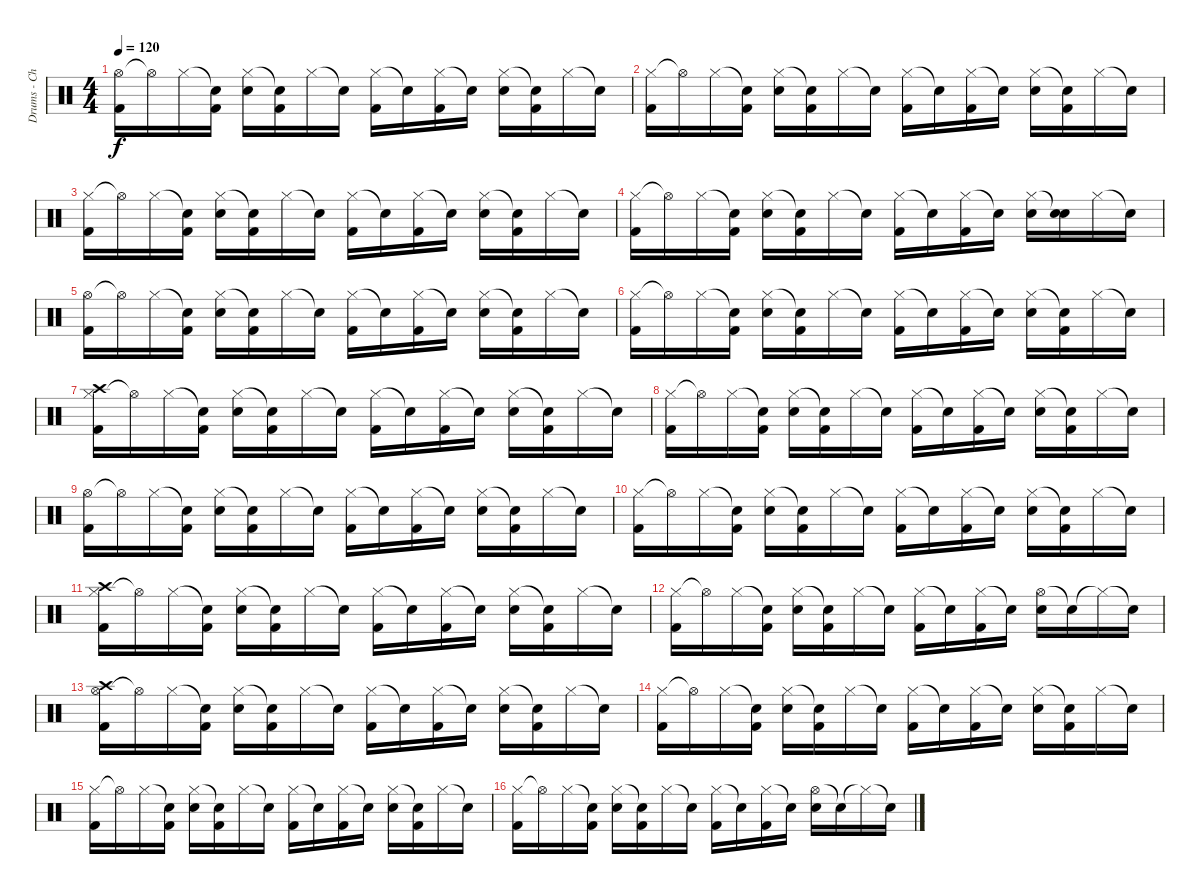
\track ("Drums - Chad" "Drums - Ch") {instrument percussion}
\staff {score}
\articulation defaults
\ts (4 4)
\tempo 120
\clef neutral
\ks c
("Hi-Hat (open)" "Kick (hit) 2").16{dy f} "Hi-Hat (open)"{t}.16 "Hi-Hat (closed)".16 ("Snare (hit)"{t} "Kick (hit) 2").16 ("Hi-Hat (closed)" "Electric Snare (hit)").16 ("Snare (hit)"{t} "Kick (hit) 2").16 "Hi-Hat (closed)".16 "Snare (hit)"{t}.16 ("Hi-Hat (closed)" "Kick (hit) 2").16 "Snare (hit)"{t}.16 ("Hi-Hat (closed)" "Kick (hit) 2").16 "Snare (hit)"{t}.16 ("Hi-Hat (closed)" "Electric Snare (hit)").16 ("Snare (hit)"{t} "Kick (hit) 2").16 "Hi-Hat (closed)".16 "Snare (hit)"{t}.16 |
("Hi-Hat (closed)" "Kick (hit) 2").16 "Hi-Hat (open)"{t}.16 "Hi-Hat (closed)".16 ("Snare (hit)"{t} "Kick (hit) 2").16 ("Hi-Hat (closed)" "Electric Snare (hit)").16 ("Snare (hit)"{t} "Kick (hit) 2").16 "Hi-Hat (closed)".16 "Snare (hit)"{t}.16 ("Hi-Hat (closed)" "Kick (hit) 2").16 "Snare (hit)"{t}.16 ("Hi-Hat (closed)" "Kick (hit) 2").16 "Snare (hit)"{t}.16 ("Hi-Hat (closed)" "Electric Snare (hit)").16 ("Snare (hit)"{t} "Kick (hit) 2").16 "Hi-Hat (closed)".16 "Snare (hit)"{t}.16 |
("Hi-Hat (closed)" "Kick (hit) 2").16 "Hi-Hat (open)"{t}.16 "Hi-Hat (closed)".16 ("Snare (hit)"{t} "Kick (hit) 2").16 ("Hi-Hat (closed)" "Electric Snare (hit)").16 ("Snare (hit)"{t} "Kick (hit) 2").16 "Hi-Hat (closed)".16 "Snare (hit)"{t}.16 ("Hi-Hat (closed)" "Kick (hit) 2").16 "Snare (hit)"{t}.16 ("Hi-Hat (closed)" "Kick (hit) 2").16 "Snare (hit)"{t}.16 ("Hi-Hat (closed)" "Electric Snare (hit)").16 ("Snare (hit)"{t} "Kick (hit) 2").16 "Hi-Hat (closed)".16 "Snare (hit)"{t}.16 |
("Hi-Hat (closed)" "Kick (hit) 2").16 "Hi-Hat (open)"{t}.16 "Hi-Hat (closed)".16 ("Snare (hit)"{t} "Kick (hit) 2").16 ("Hi-Hat (closed)" "Electric Snare (hit)").16 ("Snare (hit)"{t} "Kick (hit) 2").16 "Hi-Hat (closed)".16 "Snare (hit)"{t}.16 ("Hi-Hat (closed)" "Kick (hit) 2").16 "Snare (hit)"{t}.16 ("Hi-Hat (closed)" "Kick (hit) 2").16 "Snare (hit)"{t}.16 ("Hi-Hat (closed)" "Electric Snare (hit)").16 ("Snare (hit)"{t} "Electric Snare (hit)").16 "Hi-Hat (closed)".16 "Snare (hit)"{t}.16 |
("Hi-Hat (open)" "Kick (hit) 2").16 "Hi-Hat (open)"{t}.16 "Hi-Hat (closed)".16 ("Snare (hit)"{t} "Kick (hit) 2").16 ("Hi-Hat (closed)" "Electric Snare (hit)").16 ("Snare (hit)"{t} "Kick (hit) 2").16 "Hi-Hat (closed)".16 "Snare (hit)"{t}.16 ("Hi-Hat (closed)" "Kick (hit) 2").16 "Snare (hit)"{t}.16 ("Hi-Hat (closed)" "Kick (hit) 2").16 "Snare (hit)"{t}.16 ("Hi-Hat (closed)" "Electric Snare (hit)").16 ("Snare (hit)"{t} "Kick (hit) 2").16 "Hi-Hat (closed)".16 "Snare (hit)"{t}.16 |
("Hi-Hat (closed)" "Kick (hit) 2").16 "Hi-Hat (open)"{t}.16 "Hi-Hat (closed)".16 ("Snare (hit)"{t} "Kick (hit) 2").16 ("Hi-Hat (closed)" "Electric Snare (hit)").16 ("Snare (hit)"{t} "Kick (hit) 2").16 "Hi-Hat (closed)".16 "Snare (hit)"{t}.16 ("Hi-Hat (closed)" "Kick (hit) 2").16 "Snare (hit)"{t}.16 ("Hi-Hat (closed)" "Kick (hit) 2").16 "Snare (hit)"{t}.16 ("Hi-Hat (closed)" "Electric Snare (hit)").16 ("Snare (hit)"{t} "Kick (hit) 2").16 "Hi-Hat (closed)".16 "Snare (hit)"{t}.16 |
("Hi-Hat (closed)" "Kick (hit) 2" "Crash high (hit)").16 "Hi-Hat (open)"{t}.16 "Hi-Hat (closed)".16 ("Snare (hit)"{t} "Kick (hit) 2").16 ("Hi-Hat (closed)" "Electric Snare (hit)").16 ("Snare (hit)"{t} "Kick (hit) 2").16 "Hi-Hat (closed)".16 "Snare (hit)"{t}.16 ("Hi-Hat (closed)" "Kick (hit) 2").16 "Snare (hit)"{t}.16 ("Hi-Hat (closed)" "Kick (hit) 2").16 "Snare (hit)"{t}.16 ("Hi-Hat (closed)" "Electric Snare (hit)").16 ("Snare (hit)"{t} "Kick (hit) 2").16 "Hi-Hat (closed)".16 "Snare (hit)"{t}.16 |
("Hi-Hat (closed)" "Kick (hit) 2").16 "Hi-Hat (open)"{t}.16 "Hi-Hat (closed)".16 ("Snare (hit)"{t} "Kick (hit) 2").16 ("Hi-Hat (closed)" "Electric Snare (hit)").16 ("Snare (hit)"{t} "Kick (hit) 2").16 "Hi-Hat (closed)".16 "Snare (hit)"{t}.16 ("Hi-Hat (closed)" "Kick (hit) 2").16 "Snare (hit)"{t}.16 ("Hi-Hat (closed)" "Kick (hit) 2").16 "Snare (hit)"{t}.16 ("Hi-Hat (closed)" "Electric Snare (hit)").16 ("Snare (hit)"{t} "Kick (hit) 2").16 "Hi-Hat (closed)".16 "Snare (hit)"{t}.16 |
("Hi-Hat (open)" "Kick (hit) 2").16 "Hi-Hat (open)"{t}.16 "Hi-Hat (closed)".16 ("Snare (hit)"{t} "Kick (hit) 2").16 ("Hi-Hat (closed)" "Electric Snare (hit)").16 ("Snare (hit)"{t} "Kick (hit) 2").16 "Hi-Hat (closed)".16 "Snare (hit)"{t}.16 ("Hi-Hat (closed)" "Kick (hit) 2").16 "Snare (hit)"{t}.16 ("Hi-Hat (closed)" "Kick (hit) 2").16 "Snare (hit)"{t}.16 ("Hi-Hat (closed)" "Electric Snare (hit)").16 ("Snare (hit)"{t} "Kick (hit) 2").16 "Hi-Hat (closed)".16 "Snare (hit)"{t}.16 |
("Hi-Hat (closed)" "Kick (hit) 2").16 "Hi-Hat (open)"{t}.16 "Hi-Hat (closed)".16 ("Snare (hit)"{t} "Kick (hit) 2").16 ("Hi-Hat (closed)" "Electric Snare (hit)").16 ("Snare (hit)"{t} "Kick (hit) 2").16 "Hi-Hat (closed)".16 "Snare (hit)"{t}.16 ("Hi-Hat (closed)" "Kick (hit) 2").16 "Snare (hit)"{t}.16 ("Hi-Hat (closed)" "Kick (hit) 2").16 "Snare (hit)"{t}.16 ("Hi-Hat (closed)" "Electric Snare (hit)").16 ("Snare (hit)"{t} "Kick (hit) 2").16 "Hi-Hat (closed)".16 "Snare (hit)"{t}.16 |
("Hi-Hat (closed)" "Kick (hit) 2" "Crash high (hit)").16 "Hi-Hat (open)"{t}.16 "Hi-Hat (closed)".16 ("Snare (hit)"{t} "Kick (hit) 2").16 ("Hi-Hat (closed)" "Electric Snare (hit)").16 ("Snare (hit)"{t} "Kick (hit) 2").16 "Hi-Hat (closed)".16 "Snare (hit)"{t}.16 ("Hi-Hat (closed)" "Kick (hit) 2").16 "Snare (hit)"{t}.16 ("Hi-Hat (closed)" "Kick (hit) 2").16 "Snare (hit)"{t}.16 ("Hi-Hat (closed)" "Electric Snare (hit)").16 ("Snare (hit)"{t} "Kick (hit) 2").16 "Hi-Hat (closed)".16 "Snare (hit)"{t}.16 |
("Hi-Hat (closed)" "Kick (hit) 2").16 "Hi-Hat (open)"{t}.16 "Hi-Hat (closed)".16 ("Snare (hit)"{t} "Kick (hit) 2").16 ("Hi-Hat (closed)" "Electric Snare (hit)").16 ("Snare (hit)"{t} "Kick (hit) 2").16 "Hi-Hat (closed)".16 "Snare (hit)"{t}.16 ("Hi-Hat (closed)" "Kick (hit) 2").16 "Snare (hit)"{t}.16 ("Hi-Hat (closed)" "Kick (hit) 2").16 "Snare (hit)"{t}.16 ("Hi-Hat (open)" "Electric Snare (hit)").16 "Snare (hit)"{t}.16 "Hi-Hat (closed)"{t}.16 "Snare (hit)"{t}.16 |
("Hi-Hat (open)" "Kick (hit) 2" "Crash high (hit)").16 "Hi-Hat (open)"{t}.16 "Hi-Hat (closed)".16 ("Snare (hit)"{t} "Kick (hit) 2").16 ("Hi-Hat (closed)" "Electric Snare (hit)").16 ("Snare (hit)"{t} "Kick (hit) 2").16 "Hi-Hat (closed)".16 "Snare (hit)"{t}.16 ("Hi-Hat (closed)" "Kick (hit) 2").16 "Snare (hit)"{t}.16 ("Hi-Hat (closed)" "Kick (hit) 2").16 "Snare (hit)"{t}.16 ("Hi-Hat (closed)" "Electric Snare (hit)").16 ("Snare (hit)"{t} "Kick (hit) 2").16 "Hi-Hat (closed)".16 "Snare (hit)"{t}.16 |
("Hi-Hat (closed)" "Kick (hit) 2").16 "Hi-Hat (open)"{t}.16 "Hi-Hat (closed)".16 ("Snare (hit)"{t} "Kick (hit) 2").16 ("Hi-Hat (closed)" "Electric Snare (hit)").16 ("Snare (hit)"{t} "Kick (hit) 2").16 "Hi-Hat (closed)".16 "Snare (hit)"{t}.16 ("Hi-Hat (closed)" "Kick (hit) 2").16 "Snare (hit)"{t}.16 ("Hi-Hat (closed)" "Kick (hit) 2").16 "Snare (hit)"{t}.16 ("Hi-Hat (closed)" "Electric Snare (hit)").16 ("Snare (hit)"{t} "Kick (hit) 2").16 "Hi-Hat (closed)".16 "Snare (hit)"{t}.16 |
("Hi-Hat (closed)" "Kick (hit) 2").16 "Hi-Hat (open)"{t}.16 "Hi-Hat (closed)".16 ("Snare (hit)"{t} "Kick (hit) 2").16 ("Hi-Hat (closed)" "Electric Snare (hit)").16 ("Snare (hit)"{t} "Kick (hit) 2").16 "Hi-Hat (closed)".16 "Snare (hit)"{t}.16 ("Hi-Hat (closed)" "Kick (hit) 2").16 "Snare (hit)"{t}.16 ("Hi-Hat (closed)" "Kick (hit) 2").16 "Snare (hit)"{t}.16 ("Hi-Hat (closed)" "Electric Snare (hit)").16 ("Snare (hit)"{t} "Kick (hit) 2").16 "Hi-Hat (closed)".16 "Snare (hit)"{t}.16 |
("Hi-Hat (closed)" "Kick (hit) 2").16 "Hi-Hat (open)"{t}.16 "Hi-Hat (closed)".16 ("Snare (hit)"{t} "Kick (hit) 2").16 ("Hi-Hat (closed)" "Electric Snare (hit)").16 ("Snare (hit)"{t} "Kick (hit) 2").16 "Hi-Hat (closed)".16 "Snare (hit)"{t}.16 ("Hi-Hat (closed)" "Kick (hit) 2").16 "Snare (hit)"{t}.16 ("Hi-Hat (closed)" "Kick (hit) 2").16 "Snare (hit)"{t}.16 ("Hi-Hat (open)" "Electric Snare (hit)").16 "Snare (hit)"{t}.16 "Hi-Hat (closed)"{t}.16 "Snare (hit)"{t}.16
